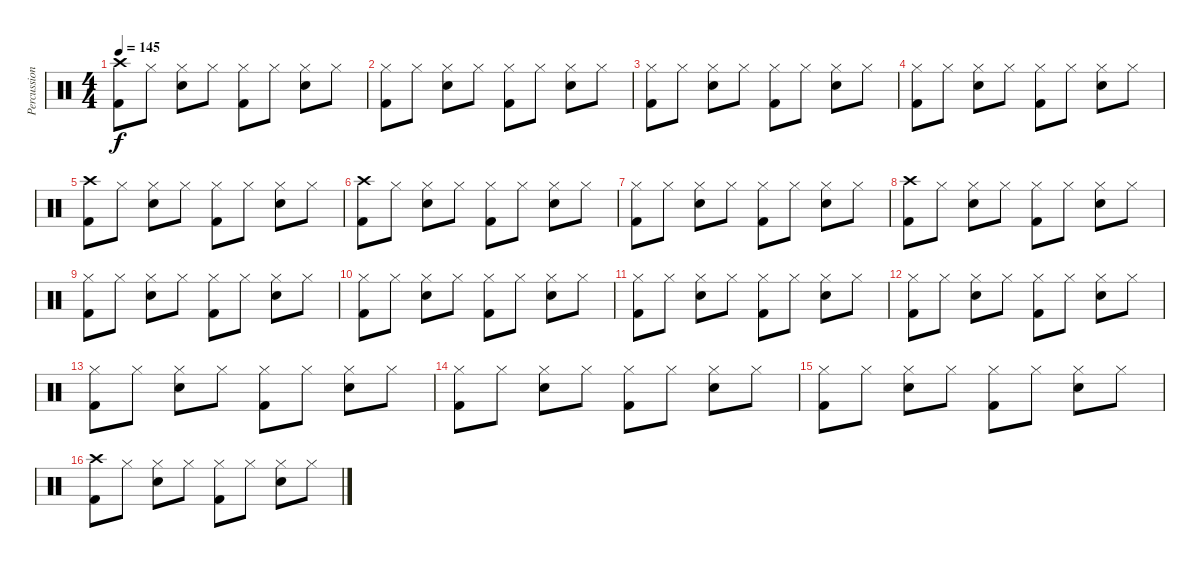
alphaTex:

\track ("Percussion" "Percussion") {instrument percussion}
\staff {score}
\articulation defaults
\ts (4 4)
\tempo 145
\clef neutral
\ks c
("Crash high (hit)" "Kick (hit) 2").8{dy f} "Hi-Hat (closed)".8 ("Hi-Hat (closed)" "Snare (hit) 2").8 "Hi-Hat (closed)".8 ("Hi-Hat (closed)" "Kick (hit) 2").8 "Hi-Hat (closed)".8 ("Hi-Hat (closed)" "Snare (hit) 2").8 "Hi-Hat (closed)".8 |
("Hi-Hat (closed)" "Kick (hit) 2").8 "Hi-Hat (closed)".8 ("Hi-Hat (closed)" "Snare (hit) 2").8 "Hi-Hat (closed)".8 ("Hi-Hat (closed)" "Kick (hit) 2").8 "Hi-Hat (closed)".8 ("Hi-Hat (closed)" "Snare (hit) 2").8 "Hi-Hat (closed)".8 |
("Hi-Hat (closed)" "Kick (hit) 2").8 "Hi-Hat (closed)".8 ("Hi-Hat (closed)" "Snare (hit) 2").8 "Hi-Hat (closed)".8 ("Hi-Hat (closed)" "Kick (hit) 2").8 "Hi-Hat (closed)".8 ("Hi-Hat (closed)" "Snare (hit) 2").8 "Hi-Hat (closed)".8 |
("Hi-Hat (closed)" "Kick (hit) 2").8 "Hi-Hat (closed)".8 ("Hi-Hat (closed)" "Snare (hit) 2").8 "Hi-Hat (closed)".8 ("Hi-Hat (closed)" "Kick (hit) 2").8 "Hi-Hat (closed)".8 ("Hi-Hat (closed)" "Snare (hit) 2").8 "Hi-Hat (closed)".8 |
("Crash high (hit)" "Kick (hit) 2").8 "Hi-Hat (closed)".8 ("Hi-Hat (closed)" "Snare (hit) 2").8 "Hi-Hat (closed)".8 ("Hi-Hat (closed)" "Kick (hit) 2").8 "Hi-Hat (closed)".8 ("Hi-Hat (closed)" "Snare (hit) 2").8 "Hi-Hat (closed)".8 |
("Crash high (hit)" "Kick (hit) 2").8 "Hi-Hat (closed)".8 ("Hi-Hat (closed)" "Snare (hit) 2").8 "Hi-Hat (closed)".8 ("Hi-Hat (closed)" "Kick (hit) 2").8 "Hi-Hat (closed)".8 ("Hi-Hat (closed)" "Snare (hit) 2").8 "Hi-Hat (closed)".8 |
("Hi-Hat (closed)" "Kick (hit) 2").8 "Hi-Hat (closed)".8 ("Hi-Hat (closed)" "Snare (hit) 2").8 "Hi-Hat (closed)".8 ("Hi-Hat (closed)" "Kick (hit) 2").8 "Hi-Hat (closed)".8 ("Hi-Hat (closed)" "Snare (hit) 2").8 "Hi-Hat (closed)".8 |
("Crash high (hit)" "Kick (hit) 2").8 "Hi-Hat (closed)".8 ("Hi-Hat (closed)" "Snare (hit) 2").8 "Hi-Hat (closed)".8 ("Hi-Hat (closed)" "Kick (hit) 2").8 "Hi-Hat (closed)".8 ("Hi-Hat (closed)" "Snare (hit) 2").8 "Hi-Hat (closed)".8 |
("Hi-Hat (closed)" "Kick (hit) 2").8 "Hi-Hat (closed)".8 ("Hi-Hat (closed)" "Snare (hit) 2").8 "Hi-Hat (closed)".8 ("Hi-Hat (closed)" "Kick (hit) 2").8 "Hi-Hat (closed)".8 ("Hi-Hat (closed)" "Snare (hit) 2").8 "Hi-Hat (closed)".8 |
("Hi-Hat (closed)" "Kick (hit) 2").8 "Hi-Hat (closed)".8 ("Hi-Hat (closed)" "Snare (hit) 2").8 "Hi-Hat (closed)".8 ("Hi-Hat (closed)" "Kick (hit) 2").8 "Hi-Hat (closed)".8 ("Hi-Hat (closed)" "Snare (hit) 2").8 "Hi-Hat (closed)".8 |
("Hi-Hat (closed)" "Kick (hit) 2").8 "Hi-Hat (closed)".8 ("Hi-Hat (closed)" "Snare (hit) 2").8 "Hi-Hat (closed)".8 ("Hi-Hat (closed)" "Kick (hit) 2").8 "Hi-Hat (closed)".8 ("Hi-Hat (closed)" "Snare (hit) 2").8 "Hi-Hat (closed)".8 |
("Hi-Hat (closed)" "Kick (hit) 2").8 "Hi-Hat (closed)".8 ("Hi-Hat (closed)" "Snare (hit) 2").8 "Hi-Hat (closed)".8 ("Hi-Hat (closed)" "Kick (hit) 2").8 "Hi-Hat (closed)".8 ("Hi-Hat (closed)" "Snare (hit) 2").8 "Hi-Hat (closed)".8 |
("Hi-Hat (closed)" "Kick (hit) 2").8 "Hi-Hat (closed)".8 ("Hi-Hat (closed)" "Snare (hit) 2").8 "Hi-Hat (closed)".8 ("Hi-Hat (closed)" "Kick (hit) 2").8 "Hi-Hat (closed)".8 ("Hi-Hat (closed)" "Snare (hit) 2").8 "Hi-Hat (closed)".8 |
("Hi-Hat (closed)" "Kick (hit) 2").8 "Hi-Hat (closed)".8 ("Hi-Hat (closed)" "Snare (hit) 2").8 "Hi-Hat (closed)".8 ("Hi-Hat (closed)" "Kick (hit) 2").8 "Hi-Hat (closed)".8 ("Hi-Hat (closed)" "Snare (hit) 2").8 "Hi-Hat (closed)".8 |
("Hi-Hat (closed)" "Kick (hit) 2").8 "Hi-Hat (closed)".8 ("Hi-Hat (closed)" "Snare (hit) 2").8 "Hi-Hat (closed)".8 ("Hi-Hat (closed)" "Kick (hit) 2").8 "Hi-Hat (closed)".8 ("Hi-Hat (closed)" "Snare (hit) 2").8 "Hi-Hat (closed)".8 |
("Crash high (hit)" "Kick (hit) 2").8 "Hi-Hat (closed)".8 ("Hi-Hat (closed)" "Snare (hit) 2").8 "Hi-Hat (closed)".8 ("Hi-Hat (closed)" "Kick (hit) 2").8 "Hi-Hat (closed)".8 ("Hi-Hat (closed)" "Snare (hit) 2").8 "Hi-Hat (closed)".8
